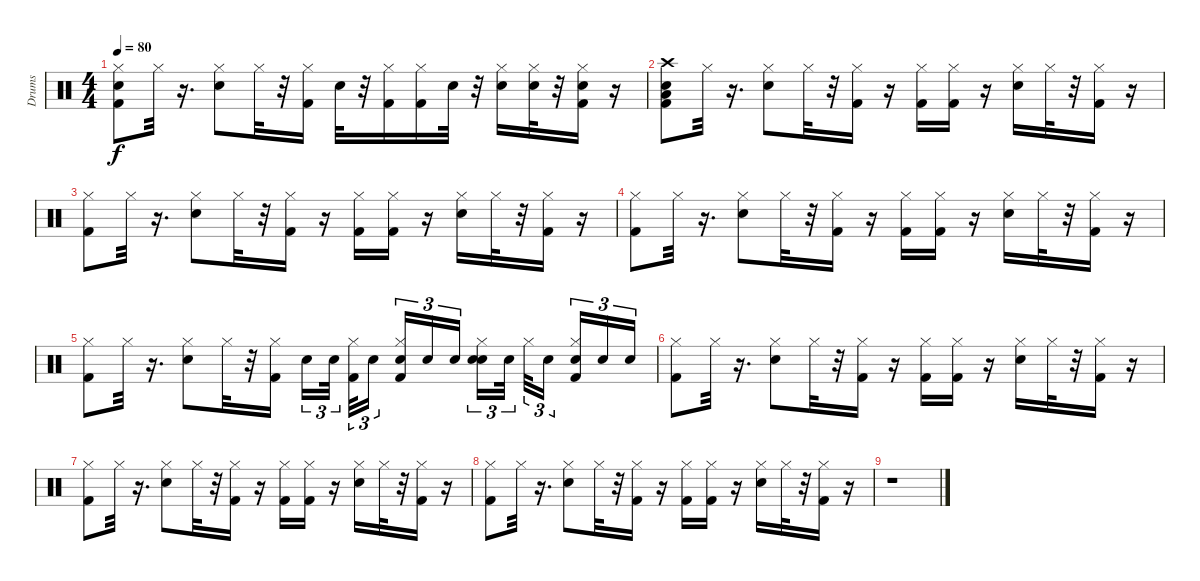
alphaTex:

\track ("Drums" "Drums") {instrument percussion}
\staff {score}
\articulation defaults
\ts (4 4)
\tempo 80
\clef neutral
\ks c
("Snare (hit) 2" "Hi-Hat (closed)" "Kick (hit) 2").8{dy f} "Hi-Hat (closed)".32 r.16{d} ("Hi-Hat (closed)" "Snare (hit) 2").8 "Hi-Hat (closed)".32 r.32 ("Kick (hit) 2" "Hi-Hat (closed)").16 "Snare (hit) 2".32 r.32 ("Hi-Hat (closed)" "Kick (hit) 2").16 ("Hi-Hat (closed)" "Kick (hit) 2").16 "Snare (hit) 2".32 r.32 ("Hi-Hat (closed)" "Snare (hit) 2").16 ("Snare (hit) 2" "Hi-Hat (closed)").32 r.32 ("Snare (hit) 2" "Hi-Hat (closed)" "Kick (hit) 2").16 r.16 |
("Snare (hit) 2" "Low Floor Tom (hit)" "Kick (hit) 2" "Crash high (hit)").8{volume 12} "Hi-Hat (closed)".32{volume 12} r.16{d} ("Hi-Hat (closed)" "Snare (hit) 2").8{volume 12} "Hi-Hat (closed)".32{volume 12} r.32 ("Kick (hit) 2" "Hi-Hat (closed)").16{volume 12} r.16 ("Hi-Hat (closed)" "Kick (hit) 2").16{volume 12} ("Hi-Hat (closed)" "Kick (hit) 2").16 r.16 ("Hi-Hat (closed)" "Snare (hit) 2").16{volume 11} "Hi-Hat (closed)".32{volume 11} r.32 ("Hi-Hat (closed)" "Kick (hit) 2").16{volume 11} r.16 |
("Hi-Hat (closed)" "Kick (hit) 2").8{volume 11} "Hi-Hat (closed)".32{volume 10} r.16{d} ("Hi-Hat (closed)" "Snare (hit) 2").8{volume 10} "Hi-Hat (closed)".32{volume 10} r.32 ("Kick (hit) 2" "Hi-Hat (closed)").16{volume 10} r.16 ("Hi-Hat (closed)" "Kick (hit) 2").16{volume 10} ("Hi-Hat (closed)" "Kick (hit) 2").16{volume 10} r.16 ("Hi-Hat (closed)" "Snare (hit) 2").16{volume 9} "Hi-Hat (closed)".32 r.32 ("Hi-Hat (closed)" "Kick (hit) 2").16{volume 9} r.16 |
("Hi-Hat (closed)" "Kick (hit) 2").8{volume 9} "Hi-Hat (closed)".32{volume 9} r.16{d} ("Hi-Hat (closed)" "Snare (hit) 2").8{volume 8} "Hi-Hat (closed)".32{volume 8} r.32 ("Kick (hit) 2" "Hi-Hat (closed)").16{volume 8} r.16 ("Hi-Hat (closed)" "Kick (hit) 2").16{volume 8} ("Hi-Hat (closed)" "Kick (hit) 2").16{volume 8} r.16 ("Hi-Hat (closed)" "Snare (hit) 2").16{volume 8} "Hi-Hat (closed)".32{volume 8} r.32 ("Hi-Hat (closed)" "Kick (hit) 2").16{volume 7} r.16 |
("Hi-Hat (closed)" "Kick (hit) 2").8{volume 7} "Hi-Hat (closed)".32{volume 7} r.16{d} ("Hi-Hat (closed)" "Snare (hit) 2").8{volume 7} "Hi-Hat (closed)".32{volume 6} r.32 ("Kick (hit) 2" "Hi-Hat (closed)").16{volume 6} "Snare (hit) 2".16{tu (3 2) volume 6} "Snare (hit) 2".32{tu (3 2)} ("Hi-Hat (closed)" "Kick (hit) 2").32{tu (3 2)} "Snare (hit) 2".16{tu (3 2) volume 6} ("Snare (hit) 2" "Hi-Hat (closed)" "Kick (hit) 2").16{tu (3 2)} "Snare (hit) 2".16{tu (3 2) volume 6} "Snare (hit) 2".16{tu (3 2) volume 6} ("Snare (hit) 2" "Hi-Hat (closed)" "Snare (hit) 2").16{tu (3 2)} "Snare (hit) 2".32{tu (3 2) volume 6} "Hi-Hat (closed)".32{tu (3 2)} "Snare (hit) 2".16{tu (3 2)} ("Snare (hit) 2" "Hi-Hat (closed)" "Kick (hit) 2").16{tu (3 2) volume 6} "Snare (hit) 2".16{tu (3 2)} "Snare (hit) 2".16{tu (3 2) volume 6} |
("Hi-Hat (closed)" "Kick (hit) 2").8{volume 5} "Hi-Hat (closed)".32{volume 5} r.16{d} ("Hi-Hat (closed)" "Snare (hit) 2").8{volume 5} "Hi-Hat (closed)".32{volume 5} r.32 ("Kick (hit) 2" "Hi-Hat (closed)").16{volume 5} r.16 ("Hi-Hat (closed)" "Kick (hit) 2").16{volume 4} ("Hi-Hat (closed)" "Kick (hit) 2").16{volume 4} r.16 ("Hi-Hat (closed)" "Snare (hit) 2").16{volume 4} "Hi-Hat (closed)".32{volume 4} r.32 ("Hi-Hat (closed)" "Kick (hit) 2").16{volume 4} r.16 |
("Hi-Hat (closed)" "Kick (hit) 2").8{volume 4} "Hi-Hat (closed)".32{volume 3} r.16{d} ("Hi-Hat (closed)" "Snare (hit) 2").8{volume 3} "Hi-Hat (closed)".32{volume 3} r.32 ("Kick (hit) 2" "Hi-Hat (closed)").16{volume 3} r.16 ("Hi-Hat (closed)" "Kick (hit) 2").16{volume 3} ("Hi-Hat (closed)" "Kick (hit) 2").16{volume 2} r.16 ("Hi-Hat (closed)" "Snare (hit) 2").16{volume 2} "Hi-Hat (closed)".32{volume 2} r.32 ("Hi-Hat (closed)" "Kick (hit) 2").16 r.16 |
("Hi-Hat (closed)" "Kick (hit) 2").8{volume 2} "Hi-Hat (closed)".32{volume 2} r.16{d} ("Hi-Hat (closed)" "Snare (hit) 2").8{volume 1} "Hi-Hat (closed)".32{volume 1} r.32 ("Kick (hit) 2" "Hi-Hat (closed)").16{volume 1} r.16 ("Hi-Hat (closed)" "Kick (hit) 2").16{volume 1} ("Hi-Hat (closed)" "Kick (hit) 2").16{volume 1} r.16 ("Hi-Hat (closed)" "Snare (hit) 2").16{volume 0} "Hi-Hat (closed)".32{volume 0} r.32 ("Hi-Hat (closed)" "Kick (hit) 2").16{volume 0} r.16 |
r.1
